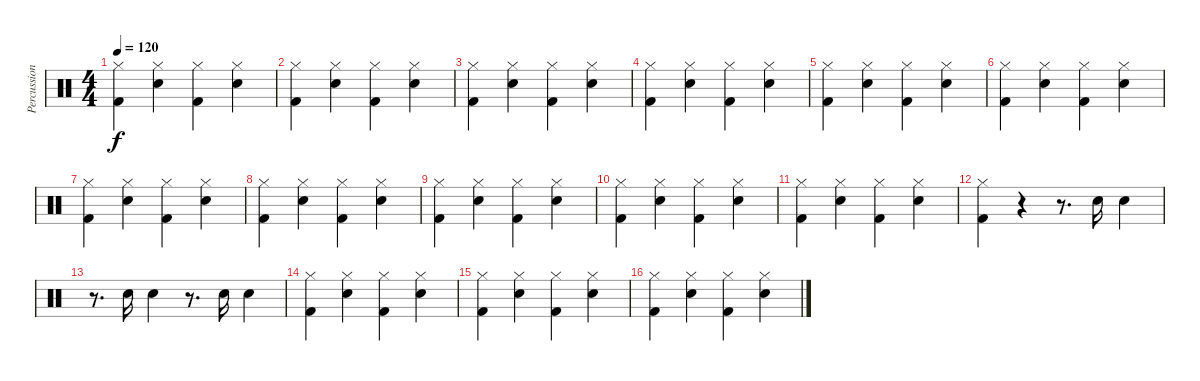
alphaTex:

\track ("Percussions" "Percussion") {instrument percussion}
\staff {score}
\articulation defaults
\ts (4 4)
\tempo 120
\clef neutral
\ks c
("Hi-Hat (closed)" "Kick (hit) 2").4{dy f} ("Hi-Hat (closed)" "Electric Snare (hit)").4 ("Hi-Hat (closed)" "Kick (hit) 2").4 ("Hi-Hat (closed)" "Electric Snare (hit)").4 |
("Hi-Hat (closed)" "Kick (hit) 2").4 ("Hi-Hat (closed)" "Electric Snare (hit)").4 ("Hi-Hat (closed)" "Kick (hit) 2").4 ("Hi-Hat (closed)" "Electric Snare (hit)").4 |
("Hi-Hat (closed)" "Kick (hit) 2").4 ("Hi-Hat (closed)" "Electric Snare (hit)").4 ("Hi-Hat (closed)" "Kick (hit) 2").4 ("Hi-Hat (closed)" "Electric Snare (hit)").4 |
("Hi-Hat (closed)" "Kick (hit) 2").4 ("Hi-Hat (closed)" "Electric Snare (hit)").4 ("Hi-Hat (closed)" "Kick (hit) 2").4 ("Hi-Hat (closed)" "Electric Snare (hit)").4 |
("Hi-Hat (closed)" "Kick (hit) 2").4 ("Hi-Hat (closed)" "Electric Snare (hit)").4 ("Hi-Hat (closed)" "Kick (hit) 2").4 ("Hi-Hat (closed)" "Electric Snare (hit)").4 |
("Hi-Hat (closed)" "Kick (hit) 2").4 ("Hi-Hat (closed)" "Electric Snare (hit)").4 ("Hi-Hat (closed)" "Kick (hit) 2").4 ("Hi-Hat (closed)" "Electric Snare (hit)").4 |
("Hi-Hat (closed)" "Kick (hit) 2").4 ("Hi-Hat (closed)" "Electric Snare (hit)").4 ("Hi-Hat (closed)" "Kick (hit) 2").4 ("Hi-Hat (closed)" "Electric Snare (hit)").4 |
("Hi-Hat (closed)" "Kick (hit) 2").4 ("Hi-Hat (closed)" "Electric Snare (hit)").4 ("Hi-Hat (closed)" "Kick (hit) 2").4 ("Hi-Hat (closed)" "Electric Snare (hit)").4 |
("Hi-Hat (closed)" "Kick (hit) 2").4 ("Hi-Hat (closed)" "Electric Snare (hit)").4 ("Hi-Hat (closed)" "Kick (hit) 2").4 ("Hi-Hat (closed)" "Electric Snare (hit)").4 |
("Hi-Hat (closed)" "Kick (hit) 2").4 ("Hi-Hat (closed)" "Electric Snare (hit)").4 ("Hi-Hat (closed)" "Kick (hit) 2").4 ("Hi-Hat (closed)" "Electric Snare (hit)").4 |
("Hi-Hat (closed)" "Kick (hit) 2").4 ("Hi-Hat (closed)" "Electric Snare (hit)").4 ("Hi-Hat (closed)" "Kick (hit) 2").4 ("Hi-Hat (closed)" "Electric Snare (hit)").4 |
("Hi-Hat (closed)" "Kick (hit) 2").4 r.4 r.8{d} "Electric Snare (hit)".16 "Electric Snare (hit)".4 |
r.8{d} "Electric Snare (hit)".16 "Electric Snare (hit)".4 r.8{d} "Electric Snare (hit)".16 "Electric Snare (hit)".4 |
("Hi-Hat (closed)" "Kick (hit) 2").4 ("Hi-Hat (closed)" "Electric Snare (hit)").4 ("Hi-Hat (closed)" "Kick (hit) 2").4 ("Hi-Hat (closed)" "Electric Snare (hit)").4 |
("Hi-Hat (closed)" "Kick (hit) 2").4 ("Hi-Hat (closed)" "Electric Snare (hit)").4 ("Hi-Hat (closed)" "Kick (hit) 2").4 ("Hi-Hat (closed)" "Electric Snare (hit)").4 |
("Hi-Hat (closed)" "Kick (hit) 2").4 ("Hi-Hat (closed)" "Electric Snare (hit)").4 ("Hi-Hat (closed)" "Kick (hit) 2").4 ("Hi-Hat (closed)" "Electric Snare (hit)").4
